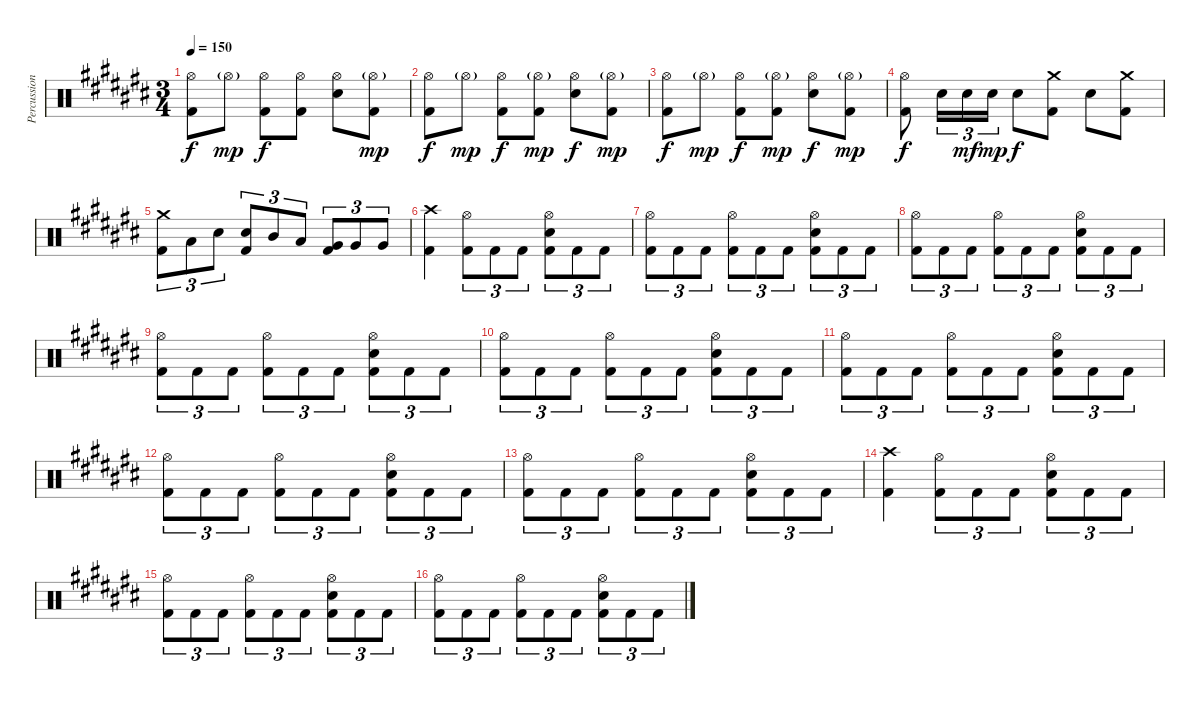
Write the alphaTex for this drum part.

\track ("Percussion" "Percussion") {instrument percussion}
\staff {score}
\articulation defaults
\ts (3 4)
\tempo 150
\clef neutral
\ks c#
("Hi-Hat (open)" "Kick (hit) 2").8{dy f} "Hi-Hat (open)"{g}.8{dy mp} ("Hi-Hat (open)" "Kick (hit) 2").8{dy f} ("Hi-Hat (open)" "Kick (hit) 2").8 ("Hi-Hat (open)" "Electric Snare (hit)").8 ("Hi-Hat (open)"{g} "Kick (hit) 2").8{dy mp} |
("Hi-Hat (open)" "Kick (hit) 2").8{dy f} "Hi-Hat (open)"{g}.8{dy mp} ("Hi-Hat (open)" "Kick (hit) 2").8{dy f} ("Hi-Hat (open)"{g} "Kick (hit) 2").8{dy mp} ("Hi-Hat (open)" "Electric Snare (hit)").8{dy f} ("Hi-Hat (open)"{g} "Kick (hit) 2").8{dy mp} |
("Hi-Hat (open)" "Kick (hit) 2").8{dy f} "Hi-Hat (open)"{g}.8{dy mp} ("Hi-Hat (open)" "Kick (hit) 2").8{dy f} ("Hi-Hat (open)"{g} "Kick (hit) 2").8{dy mp} ("Hi-Hat (open)" "Electric Snare (hit)").8{dy f} ("Hi-Hat (open)"{g} "Kick (hit) 2").8{dy mp} |
("Hi-Hat (open)" "Kick (hit) 2").8{dy f} "Electric Snare (hit)".16{tu (3 2)} "Electric Snare (hit)".16{tu (3 2) dy mf} "Electric Snare (hit)".16{tu (3 2) dy mp} "Electric Snare (hit)".8{dy f} ("Crash medium (hit)" "Kick (hit) 2").8 "Electric Snare (hit)".8 ("Crash medium (hit)" "Kick (hit) 2").8 |
("Crash medium (hit)" "Kick (hit) 2").8{tu (3 2)} "Low Tom (hit)".8{tu (3 2)} "Electric Snare (hit)".8{tu (3 2)} ("Electric Snare (hit)" "Kick (hit) 2").8{tu (3 2)} "Mid Tom (hit)".8{tu (3 2)} "Low Tom (hit)".8{tu (3 2)} ("Very Low Tom (hit)" "Kick (hit) 2").8{tu (3 2)} "Very Low Tom (hit)".8{tu (3 2)} "Very Low Tom (hit)".8{tu (3 2)} |
("Crash high (hit)" "Kick (hit) 2").4 ("Hi-Hat (open)" "Kick (hit) 2").8{tu (3 2)} "Kick (hit) 2".8{tu (3 2)} "Kick (hit) 2".8{tu (3 2)} ("Hi-Hat (open)" "Electric Snare (hit)" "Kick (hit) 2").8{tu (3 2)} "Kick (hit) 2".8{tu (3 2)} "Kick (hit) 2".8{tu (3 2)} |
("Hi-Hat (open)" "Kick (hit) 2").8{tu (3 2)} "Kick (hit) 2".8{tu (3 2)} "Kick (hit) 2".8{tu (3 2)} ("Hi-Hat (open)" "Kick (hit) 2").8{tu (3 2)} "Kick (hit) 2".8{tu (3 2)} "Kick (hit) 2".8{tu (3 2)} ("Hi-Hat (open)" "Electric Snare (hit)" "Kick (hit) 2").8{tu (3 2)} "Kick (hit) 2".8{tu (3 2)} "Kick (hit) 2".8{tu (3 2)} |
("Hi-Hat (open)" "Kick (hit) 2").8{tu (3 2)} "Kick (hit) 2".8{tu (3 2)} "Kick (hit) 2".8{tu (3 2)} ("Hi-Hat (open)" "Kick (hit) 2").8{tu (3 2)} "Kick (hit) 2".8{tu (3 2)} "Kick (hit) 2".8{tu (3 2)} ("Hi-Hat (open)" "Electric Snare (hit)" "Kick (hit) 2").8{tu (3 2)} "Kick (hit) 2".8{tu (3 2)} "Kick (hit) 2".8{tu (3 2)} |
("Hi-Hat (open)" "Kick (hit) 2").8{tu (3 2)} "Kick (hit) 2".8{tu (3 2)} "Kick (hit) 2".8{tu (3 2)} ("Hi-Hat (open)" "Kick (hit) 2").8{tu (3 2)} "Kick (hit) 2".8{tu (3 2)} "Kick (hit) 2".8{tu (3 2)} ("Hi-Hat (open)" "Electric Snare (hit)" "Kick (hit) 2").8{tu (3 2)} "Kick (hit) 2".8{tu (3 2)} "Kick (hit) 2".8{tu (3 2)} |
("Hi-Hat (open)" "Kick (hit) 2").8{tu (3 2)} "Kick (hit) 2".8{tu (3 2)} "Kick (hit) 2".8{tu (3 2)} ("Hi-Hat (open)" "Kick (hit) 2").8{tu (3 2)} "Kick (hit) 2".8{tu (3 2)} "Kick (hit) 2".8{tu (3 2)} ("Hi-Hat (open)" "Electric Snare (hit)" "Kick (hit) 2").8{tu (3 2)} "Kick (hit) 2".8{tu (3 2)} "Kick (hit) 2".8{tu (3 2)} |
("Hi-Hat (open)" "Kick (hit) 2").8{tu (3 2)} "Kick (hit) 2".8{tu (3 2)} "Kick (hit) 2".8{tu (3 2)} ("Hi-Hat (open)" "Kick (hit) 2").8{tu (3 2)} "Kick (hit) 2".8{tu (3 2)} "Kick (hit) 2".8{tu (3 2)} ("Hi-Hat (open)" "Electric Snare (hit)" "Kick (hit) 2").8{tu (3 2)} "Kick (hit) 2".8{tu (3 2)} "Kick (hit) 2".8{tu (3 2)} |
("Hi-Hat (open)" "Kick (hit) 2").8{tu (3 2)} "Kick (hit) 2".8{tu (3 2)} "Kick (hit) 2".8{tu (3 2)} ("Hi-Hat (open)" "Kick (hit) 2").8{tu (3 2)} "Kick (hit) 2".8{tu (3 2)} "Kick (hit) 2".8{tu (3 2)} ("Hi-Hat (open)" "Electric Snare (hit)" "Kick (hit) 2").8{tu (3 2)} "Kick (hit) 2".8{tu (3 2)} "Kick (hit) 2".8{tu (3 2)} |
("Hi-Hat (open)" "Kick (hit) 2").8{tu (3 2)} "Kick (hit) 2".8{tu (3 2)} "Kick (hit) 2".8{tu (3 2)} ("Hi-Hat (open)" "Kick (hit) 2").8{tu (3 2)} "Kick (hit) 2".8{tu (3 2)} "Kick (hit) 2".8{tu (3 2)} ("Hi-Hat (open)" "Electric Snare (hit)" "Kick (hit) 2").8{tu (3 2)} "Kick (hit) 2".8{tu (3 2)} "Kick (hit) 2".8{tu (3 2)} |
("Crash high (hit)" "Kick (hit) 2").4 ("Hi-Hat (open)" "Kick (hit) 2").8{tu (3 2)} "Kick (hit) 2".8{tu (3 2)} "Kick (hit) 2".8{tu (3 2)} ("Hi-Hat (open)" "Electric Snare (hit)" "Kick (hit) 2").8{tu (3 2)} "Kick (hit) 2".8{tu (3 2)} "Kick (hit) 2".8{tu (3 2)} |
("Hi-Hat (open)" "Kick (hit) 2").8{tu (3 2)} "Kick (hit) 2".8{tu (3 2)} "Kick (hit) 2".8{tu (3 2)} ("Hi-Hat (open)" "Kick (hit) 2").8{tu (3 2)} "Kick (hit) 2".8{tu (3 2)} "Kick (hit) 2".8{tu (3 2)} ("Hi-Hat (open)" "Electric Snare (hit)" "Kick (hit) 2").8{tu (3 2)} "Kick (hit) 2".8{tu (3 2)} "Kick (hit) 2".8{tu (3 2)} |
("Hi-Hat (open)" "Kick (hit) 2").8{tu (3 2)} "Kick (hit) 2".8{tu (3 2)} "Kick (hit) 2".8{tu (3 2)} ("Hi-Hat (open)" "Kick (hit) 2").8{tu (3 2)} "Kick (hit) 2".8{tu (3 2)} "Kick (hit) 2".8{tu (3 2)} ("Hi-Hat (open)" "Electric Snare (hit)" "Kick (hit) 2").8{tu (3 2)} "Kick (hit) 2".8{tu (3 2)} "Kick (hit) 2".8{tu (3 2)}
